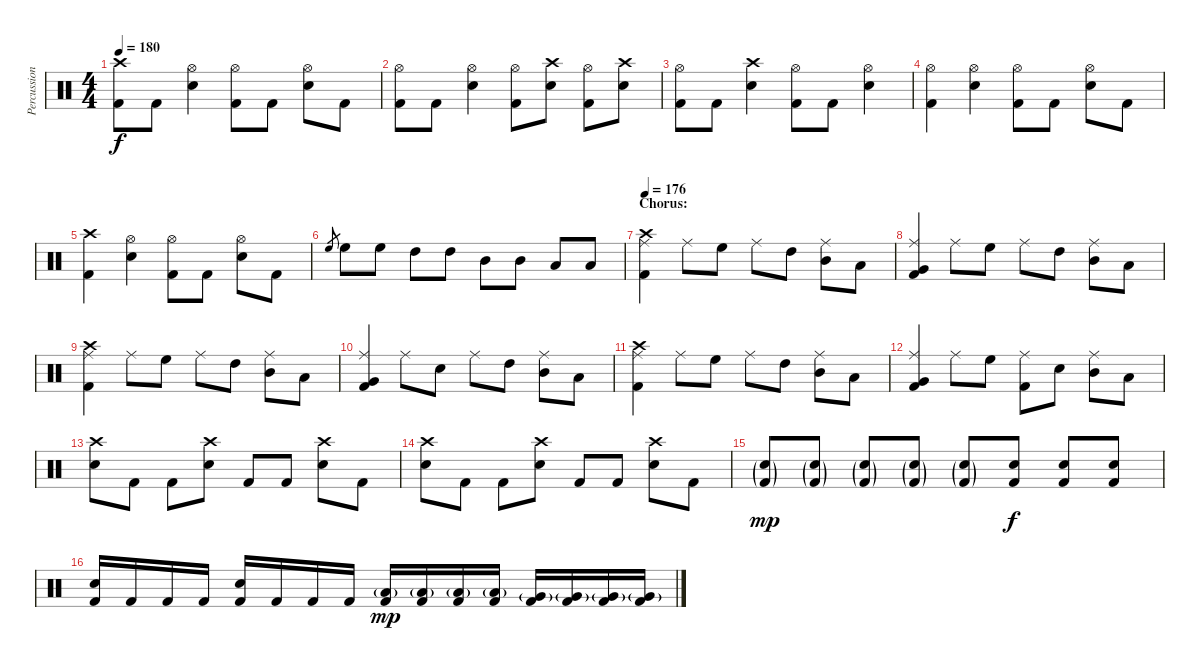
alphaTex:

\track ("Percussion" "Percussion") {instrument percussion}
\staff {score}
\articulation defaults
\ts (4 4)
\tempo 180
\clef neutral
\ks c
("Crash high (hit)" "Kick (hit) 2").8{dy f} "Kick (hit) 2".8 ("Hi-Hat (open)" "Snare (hit) 2").4 ("Hi-Hat (open)" "Kick (hit) 2").8 "Kick (hit) 2".8 ("Hi-Hat (open)" "Snare (hit) 2").8 "Kick (hit) 2".8 |
("Hi-Hat (open)" "Kick (hit) 2").8 "Kick (hit) 2".8 ("Hi-Hat (open)" "Snare (hit) 2").4 ("Hi-Hat (open)" "Kick (hit) 2").8 ("Crash high (hit)" "Snare (hit) 2").8 ("Hi-Hat (open)" "Kick (hit) 2").8 ("Crash high (hit)" "Snare (hit) 2").8 |
("Hi-Hat (open)" "Kick (hit) 2").8 "Kick (hit) 2".8 ("Crash high (hit)" "Snare (hit) 2").4 ("Hi-Hat (open)" "Kick (hit) 2").8 "Kick (hit) 2".8 ("Hi-Hat (open)" "Snare (hit) 2").4 |
("Hi-Hat (open)" "Kick (hit) 2").4 ("Hi-Hat (open)" "Snare (hit) 2").4 ("Hi-Hat (open)" "Kick (hit) 2").8 "Kick (hit) 2".8 ("Hi-Hat (open)" "Snare (hit) 2").8 "Kick (hit) 2".8 |
("Crash high (hit)" "Kick (hit) 2").4 ("Hi-Hat (open)" "Snare (hit) 2").4 ("Hi-Hat (open)" "Kick (hit) 2").8 "Kick (hit) 2".8 ("Hi-Hat (open)" "Snare (hit) 2").8 "Kick (hit) 2".8 |
"High Floor Tom (hit)".8{gr} "High Floor Tom (hit)".8 "High Floor Tom (hit)".8 "High Tom (hit)".8 "High Tom (hit)".8 "Mid Tom (hit)".8 "Mid Tom (hit)".8 "Low Tom (hit)".8 "Low Tom (hit)".8 |
\section ("" "Chorus:")
\tempo 176
("Ride (middle)" "Crash high (hit)" "Kick (hit) 2").4 "Ride (middle)".8 "High Floor Tom (hit)".8 "Ride (middle)".8 "High Tom (hit)".8 ("Ride (middle)" "Mid Tom (hit)").8 "Low Tom (hit)".8 |
("Ride (middle)" "Very Low Tom (hit)" "Kick (hit) 2").4 "Ride (middle)".8 "High Floor Tom (hit)".8 "Ride (middle)".8 "High Tom (hit)".8 ("Ride (middle)" "Mid Tom (hit)").8 "Low Tom (hit)".8 |
("Ride (middle)" "Crash high (hit)" "Kick (hit) 2").4 "Ride (middle)".8 "High Floor Tom (hit)".8 "Ride (middle)".8 "High Tom (hit)".8 ("Ride (middle)" "Mid Tom (hit)").8 "Low Tom (hit)".8 |
("Ride (middle)" "Very Low Tom (hit)" "Kick (hit) 2").4 "Ride (middle)".8 "Snare (hit) 2".8 "Ride (middle)".8 "High Tom (hit)".8 ("Ride (middle)" "Mid Tom (hit)").8 "Low Tom (hit)".8 |
("Ride (middle)" "Crash high (hit)" "Kick (hit) 2").4 "Ride (middle)".8 "High Floor Tom (hit)".8 "Ride (middle)".8 "High Tom (hit)".8 ("Ride (middle)" "Mid Tom (hit)").8 "Low Tom (hit)".8 |
("Ride (middle)" "Very Low Tom (hit)" "Kick (hit) 2").4 "Ride (middle)".8 "High Floor Tom (hit)".8 ("Ride (middle)" "Kick (hit) 2").8 "Snare (hit) 2".8 ("Ride (middle)" "Mid Tom (hit)").8 "Low Tom (hit)".8 |
("Crash high (hit)" "Snare (hit) 2").8 "Kick (hit) 2".8 "Kick (hit) 2".8 ("Crash high (hit)" "Snare (hit) 2").8 "Kick (hit) 2".8 "Kick (hit) 2".8 ("Crash high (hit)" "Snare (hit) 2").8 "Kick (hit) 2".8 |
("Crash high (hit)" "Snare (hit) 2").8 "Kick (hit) 2".8 "Kick (hit) 2".8 ("Crash high (hit)" "Snare (hit) 2").8 "Kick (hit) 2".8 "Kick (hit) 2".8 ("Crash high (hit)" "Snare (hit) 2").8 "Kick (hit) 2".8 |
("Snare (hit) 2"{g} "Kick (hit) 2"{g}).8{dy mp} ("Snare (hit) 2"{g} "Kick (hit) 2"{g}).8 ("Snare (hit) 2"{g} "Kick (hit) 2"{g}).8 ("Snare (hit) 2"{g} "Kick (hit) 2"{g}).8 ("Snare (hit) 2"{g} "Kick (hit) 2"{g}).8 ("Snare (hit) 2" "Kick (hit) 2").8{dy f} ("Snare (hit) 2" "Kick (hit) 2").8 ("Snare (hit) 2" "Kick (hit) 2").8 |
("Snare (hit) 2" "Kick (hit) 2").16 "Kick (hit) 2".16 "Kick (hit) 2".16 "Kick (hit) 2".16 ("Snare (hit) 2" "Kick (hit) 2").16 "Kick (hit) 2".16 "Kick (hit) 2".16 "Kick (hit) 2".16 ("Low Tom (hit)"{g} "Kick (hit) 2").16{dy mp} ("Low Tom (hit)"{g} "Kick (hit) 2").16 ("Low Tom (hit)"{g} "Kick (hit) 2").16 ("Low Tom (hit)"{g} "Kick (hit) 2").16 ("Very Low Tom (hit)"{g} "Kick (hit) 2").16 ("Very Low Tom (hit)"{g} "Kick (hit) 2").16 ("Very Low Tom (hit)"{g} "Kick (hit) 2").16 ("Very Low Tom (hit)"{g} "Kick (hit) 2").16
